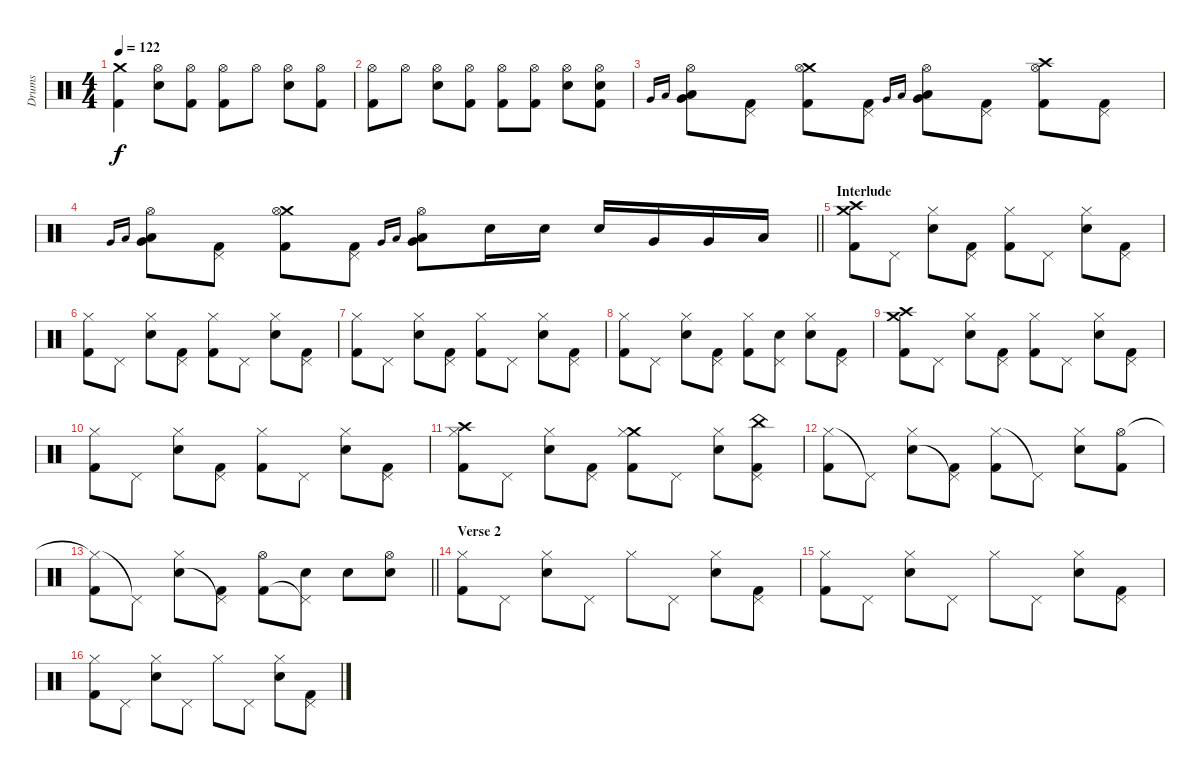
\track ("Drums" "Drums") {instrument percussion}
\staff {score}
\articulation defaults
\ts (4 4)
\tempo 122
\clef neutral
\ks c
("Crash medium (hit)" "Kick (hit) 2").4{dy f} ("Snare (hit) 2" "Hi-Hat (open)").8 ("Hi-Hat (open)" "Kick (hit) 2").8 ("Hi-Hat (open)" "Kick (hit) 2").8 "Hi-Hat (open)".8 ("Snare (hit) 2" "Hi-Hat (open)").8 ("Hi-Hat (open)" "Kick (hit) 2").8 |
("Hi-Hat (open)" "Kick (hit) 2").8 "Hi-Hat (open)".8 ("Snare (hit) 2" "Hi-Hat (open)").8 ("Hi-Hat (open)" "Kick (hit) 2").8 ("Hi-Hat (open)" "Kick (hit) 2").8 ("Hi-Hat (open)" "Kick (hit) 2").8 ("Snare (hit) 2" "Hi-Hat (open)").8 ("Snare (hit) 2" "Hi-Hat (open)" "Kick (hit) 2").8 |
"Very Low Tom (hit)".16{gr onbeat} "Low Floor Tom (hit)".16{gr onbeat} ("Hi-Hat (open)" "Very Low Tom (hit)" "Low Floor Tom (hit)").8 ("Pedal Hi-Hat (hit)" "Kick (hit) 2").8 ("Crash medium (hit)" "Hi-Hat (open)" "Kick (hit) 2").8 ("Pedal Hi-Hat (hit)" "Kick (hit) 2").8 "Very Low Tom (hit)".16{gr onbeat} "Low Floor Tom (hit)".16{gr onbeat} ("Hi-Hat (open)" "Very Low Tom (hit)" "Low Floor Tom (hit)").8 ("Pedal Hi-Hat (hit)" "Kick (hit) 2").8 ("Crash high (hit)" "Hi-Hat (open)" "Kick (hit) 2").8 ("Pedal Hi-Hat (hit)" "Kick (hit) 2").8 |
\barLineRight lightlight "Very Low Tom (hit)".16{gr onbeat} "Low Floor Tom (hit)".16{gr onbeat}
("Hi-Hat (open)" "Very Low Tom (hit)" "Low Floor Tom (hit)").8 ("Pedal Hi-Hat (hit)" "Kick (hit) 2").8 ("Crash medium (hit)" "Hi-Hat (open)" "Kick (hit) 2").8 ("Pedal Hi-Hat (hit)" "Kick (hit) 2").8 "Very Low Tom (hit)".16{gr onbeat} "Low Floor Tom (hit)".16{gr onbeat} ("Hi-Hat (open)" "Very Low Tom (hit)" "Low Floor Tom (hit)").8 "Snare (hit) 2".16 "Snare (hit) 2".16 "Snare (hit) 2".16 "Very Low Tom (hit)".16 "Very Low Tom (hit)".16 "Low Floor Tom (hit)".16 |
\section ("" "Interlude")
("Crash medium (hit)" "Crash high (hit)" "Kick (hit) 2").8 "Pedal Hi-Hat (hit)".8 ("Snare (hit) 2" "Hi-Hat (closed)").8 ("Pedal Hi-Hat (hit)" "Kick (hit) 2").8 ("Hi-Hat (closed)" "Kick (hit) 2").8 "Pedal Hi-Hat (hit)".8 ("Snare (hit) 2" "Hi-Hat (closed)").8 ("Pedal Hi-Hat (hit)" "Kick (hit) 2").8 |
("Hi-Hat (closed)" "Kick (hit) 2").8 "Pedal Hi-Hat (hit)".8 ("Snare (hit) 2" "Hi-Hat (closed)").8 ("Pedal Hi-Hat (hit)" "Kick (hit) 2").8 ("Hi-Hat (closed)" "Kick (hit) 2").8 "Pedal Hi-Hat (hit)".8 ("Snare (hit) 2" "Hi-Hat (closed)").8 ("Pedal Hi-Hat (hit)" "Kick (hit) 2").8 |
("Hi-Hat (closed)" "Kick (hit) 2").8 "Pedal Hi-Hat (hit)".8 ("Snare (hit) 2" "Hi-Hat (closed)").8 ("Pedal Hi-Hat (hit)" "Kick (hit) 2").8 ("Hi-Hat (closed)" "Kick (hit) 2").8 "Pedal Hi-Hat (hit)".8 ("Snare (hit) 2" "Hi-Hat (closed)").8 ("Pedal Hi-Hat (hit)" "Kick (hit) 2").8 |
("Hi-Hat (closed)" "Kick (hit) 2").8 "Pedal Hi-Hat (hit)".8 ("Snare (hit) 2" "Hi-Hat (closed)").8 ("Pedal Hi-Hat (hit)" "Kick (hit) 2").8 ("Hi-Hat (closed)" "Kick (hit) 2").8 ("Snare (hit) 2" "Pedal Hi-Hat (hit)").8 ("Snare (hit) 2" "Hi-Hat (closed)").8 ("Pedal Hi-Hat (hit)" "Kick (hit) 2").8 |
("Crash medium (hit)" "Crash high (hit)" "Kick (hit) 2").8 "Pedal Hi-Hat (hit)".8 ("Snare (hit) 2" "Hi-Hat (closed)").8 ("Pedal Hi-Hat (hit)" "Kick (hit) 2").8 ("Hi-Hat (closed)" "Kick (hit) 2").8 "Pedal Hi-Hat (hit)".8 ("Snare (hit) 2" "Hi-Hat (closed)").8 ("Pedal Hi-Hat (hit)" "Kick (hit) 2").8 |
("Hi-Hat (closed)" "Kick (hit) 2").8 "Pedal Hi-Hat (hit)".8 ("Snare (hit) 2" "Hi-Hat (closed)").8 ("Pedal Hi-Hat (hit)" "Kick (hit) 2").8 ("Hi-Hat (closed)" "Kick (hit) 2").8 "Pedal Hi-Hat (hit)".8 ("Snare (hit) 2" "Hi-Hat (closed)").8 ("Pedal Hi-Hat (hit)" "Kick (hit) 2").8 |
("Crash high (hit)" "Hi-Hat (closed)" "Kick (hit) 2").8 "Pedal Hi-Hat (hit)".8 ("Snare (hit) 2" "Hi-Hat (closed)").8 ("Pedal Hi-Hat (hit)" "Kick (hit) 2").8 ("Crash medium (hit)" "Hi-Hat (closed)" "Kick (hit) 2").8 "Pedal Hi-Hat (hit)".8 ("Snare (hit) 2" "Hi-Hat (closed)").8 ("China (hit)" "Pedal Hi-Hat (hit)" "Kick (hit) 2").8 |
("Hi-Hat (closed)" "Kick (hit) 2").8 "Pedal Hi-Hat (hit)"{t}.8 ("Snare (hit) 2" "Hi-Hat (closed)").8 ("Pedal Hi-Hat (hit)"{t} "Kick (hit) 2").8 ("Hi-Hat (closed)" "Kick (hit) 2").8 "Pedal Hi-Hat (hit)"{t}.8 ("Snare (hit) 2" "Hi-Hat (closed)").8 ("Hi-Hat (open)" "Kick (hit) 2").8 |
\barLineRight lightlight
("Hi-Hat (closed)"{t} "Kick (hit) 2").8 "Pedal Hi-Hat (hit)"{t}.8 ("Snare (hit) 2" "Hi-Hat (closed)").8 ("Pedal Hi-Hat (hit)"{t} "Kick (hit) 2").8 ("Hi-Hat (open)" "Kick (hit) 2").8 ("Snare (hit) 2" "Pedal Hi-Hat (hit)"{t}).8 "Snare (hit) 2".8 ("Snare (hit) 2" "Hi-Hat (open)").8 |
\section ("" "Verse 2")
("Hi-Hat (closed)" "Kick (hit) 2").8 "Pedal Hi-Hat (hit)".8 ("Snare (hit) 2" "Hi-Hat (closed)").8 "Pedal Hi-Hat (hit)".8 "Hi-Hat (closed)".8 "Pedal Hi-Hat (hit)".8 ("Snare (hit) 2" "Hi-Hat (closed)").8 ("Pedal Hi-Hat (hit)" "Kick (hit) 2").8 |
("Hi-Hat (closed)" "Kick (hit) 2").8 "Pedal Hi-Hat (hit)".8 ("Snare (hit) 2" "Hi-Hat (closed)").8 "Pedal Hi-Hat (hit)".8 "Hi-Hat (closed)".8 "Pedal Hi-Hat (hit)".8 ("Snare (hit) 2" "Hi-Hat (closed)").8 ("Pedal Hi-Hat (hit)" "Kick (hit) 2").8 |
("Hi-Hat (closed)" "Kick (hit) 2").8 "Pedal Hi-Hat (hit)".8 ("Snare (hit) 2" "Hi-Hat (closed)").8 "Pedal Hi-Hat (hit)".8 "Hi-Hat (closed)".8 "Pedal Hi-Hat (hit)".8 ("Snare (hit) 2" "Hi-Hat (closed)").8 ("Pedal Hi-Hat (hit)" "Kick (hit) 2").8
